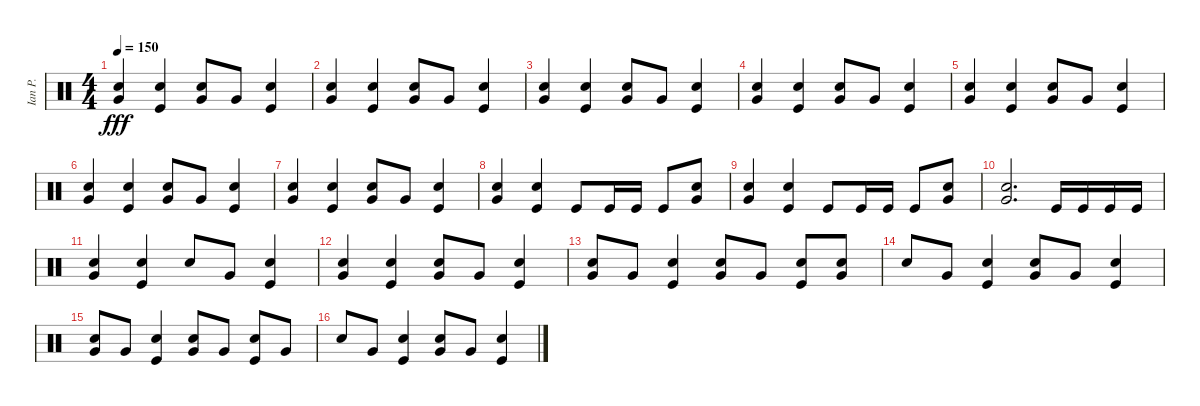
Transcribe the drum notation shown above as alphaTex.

\track ("Ian P." "Ian P.") {instrument percussion}
\staff {score}
\articulation defaults
\ts (4 4)
\tempo 150
\clef neutral
\ks c
("Very Low Tom (hit)" "Electric Snare (hit)").4{dy fff} ("Kick (hit)" "Electric Snare (hit)").4 ("Very Low Tom (hit)" "Electric Snare (hit)").8 "Very Low Tom (hit)".8 ("Kick (hit)" "Electric Snare (hit)").4 |
("Very Low Tom (hit)" "Electric Snare (hit)").4 ("Kick (hit)" "Electric Snare (hit)").4 ("Very Low Tom (hit)" "Electric Snare (hit)").8 "Very Low Tom (hit)".8 ("Kick (hit)" "Electric Snare (hit)").4 |
("Very Low Tom (hit)" "Electric Snare (hit)").4 ("Kick (hit)" "Electric Snare (hit)").4 ("Very Low Tom (hit)" "Electric Snare (hit)").8 "Very Low Tom (hit)".8 ("Kick (hit)" "Electric Snare (hit)").4 |
("Very Low Tom (hit)" "Electric Snare (hit)").4 ("Kick (hit)" "Electric Snare (hit)").4 ("Very Low Tom (hit)" "Electric Snare (hit)").8 "Very Low Tom (hit)".8 ("Kick (hit)" "Electric Snare (hit)").4 |
("Very Low Tom (hit)" "Electric Snare (hit)").4 ("Kick (hit)" "Electric Snare (hit)").4 ("Very Low Tom (hit)" "Electric Snare (hit)").8 "Very Low Tom (hit)".8 ("Kick (hit)" "Electric Snare (hit)").4 |
("Very Low Tom (hit)" "Electric Snare (hit)").4 ("Kick (hit)" "Electric Snare (hit)").4 ("Very Low Tom (hit)" "Electric Snare (hit)").8 "Very Low Tom (hit)".8 ("Kick (hit)" "Electric Snare (hit)").4 |
("Very Low Tom (hit)" "Electric Snare (hit)").4 ("Kick (hit)" "Electric Snare (hit)").4 ("Very Low Tom (hit)" "Electric Snare (hit)").8 "Very Low Tom (hit)".8 ("Kick (hit)" "Electric Snare (hit)").4 |
("Very Low Tom (hit)" "Electric Snare (hit)").4 ("Kick (hit)" "Electric Snare (hit)").4 "Kick (hit)".8 "Kick (hit)".16 "Kick (hit)".16 "Kick (hit)".8 ("Very Low Tom (hit)" "Electric Snare (hit)").8 |
("Very Low Tom (hit)" "Electric Snare (hit)").4 ("Kick (hit)" "Electric Snare (hit)").4 "Kick (hit)".8 "Kick (hit)".16 "Kick (hit)".16 "Kick (hit)".8 ("Very Low Tom (hit)" "Electric Snare (hit)").8 |
("Electric Snare (hit)" "Very Low Tom (hit)").2{d} "Kick (hit)".16 "Kick (hit)".16 "Kick (hit)".16 "Kick (hit)".16 |
("Very Low Tom (hit)" "Electric Snare (hit)").4 ("Kick (hit)" "Electric Snare (hit)").4 "Electric Snare (hit)".8 "Very Low Tom (hit)".8 ("Electric Snare (hit)" "Kick (hit)").4 |
("Very Low Tom (hit)" "Electric Snare (hit)").4 ("Kick (hit)" "Electric Snare (hit)").4 ("Very Low Tom (hit)" "Electric Snare (hit)").8 "Very Low Tom (hit)".8 ("Kick (hit)" "Electric Snare (hit)").4 |
("Very Low Tom (hit)" "Electric Snare (hit)").8 "Very Low Tom (hit)".8 ("Kick (hit)" "Electric Snare (hit)").4 ("Very Low Tom (hit)" "Electric Snare (hit)").8 "Very Low Tom (hit)".8 ("Kick (hit)" "Electric Snare (hit)").8 ("Very Low Tom (hit)" "Electric Snare (hit)").8 |
"Electric Snare (hit)".8 "Very Low Tom (hit)".8 ("Kick (hit)" "Electric Snare (hit)").4 ("Very Low Tom (hit)" "Electric Snare (hit)").8 "Very Low Tom (hit)".8 ("Kick (hit)" "Electric Snare (hit)").4 |
("Very Low Tom (hit)" "Electric Snare (hit)").8 "Very Low Tom (hit)".8 ("Kick (hit)" "Electric Snare (hit)").4 ("Very Low Tom (hit)" "Electric Snare (hit)").8 "Very Low Tom (hit)".8 ("Kick (hit)" "Electric Snare (hit)").8 "Very Low Tom (hit)".8 |
"Electric Snare (hit)".8 "Very Low Tom (hit)".8 ("Kick (hit)" "Electric Snare (hit)").4 ("Very Low Tom (hit)" "Electric Snare (hit)").8 "Very Low Tom (hit)".8 ("Kick (hit)" "Electric Snare (hit)").4
